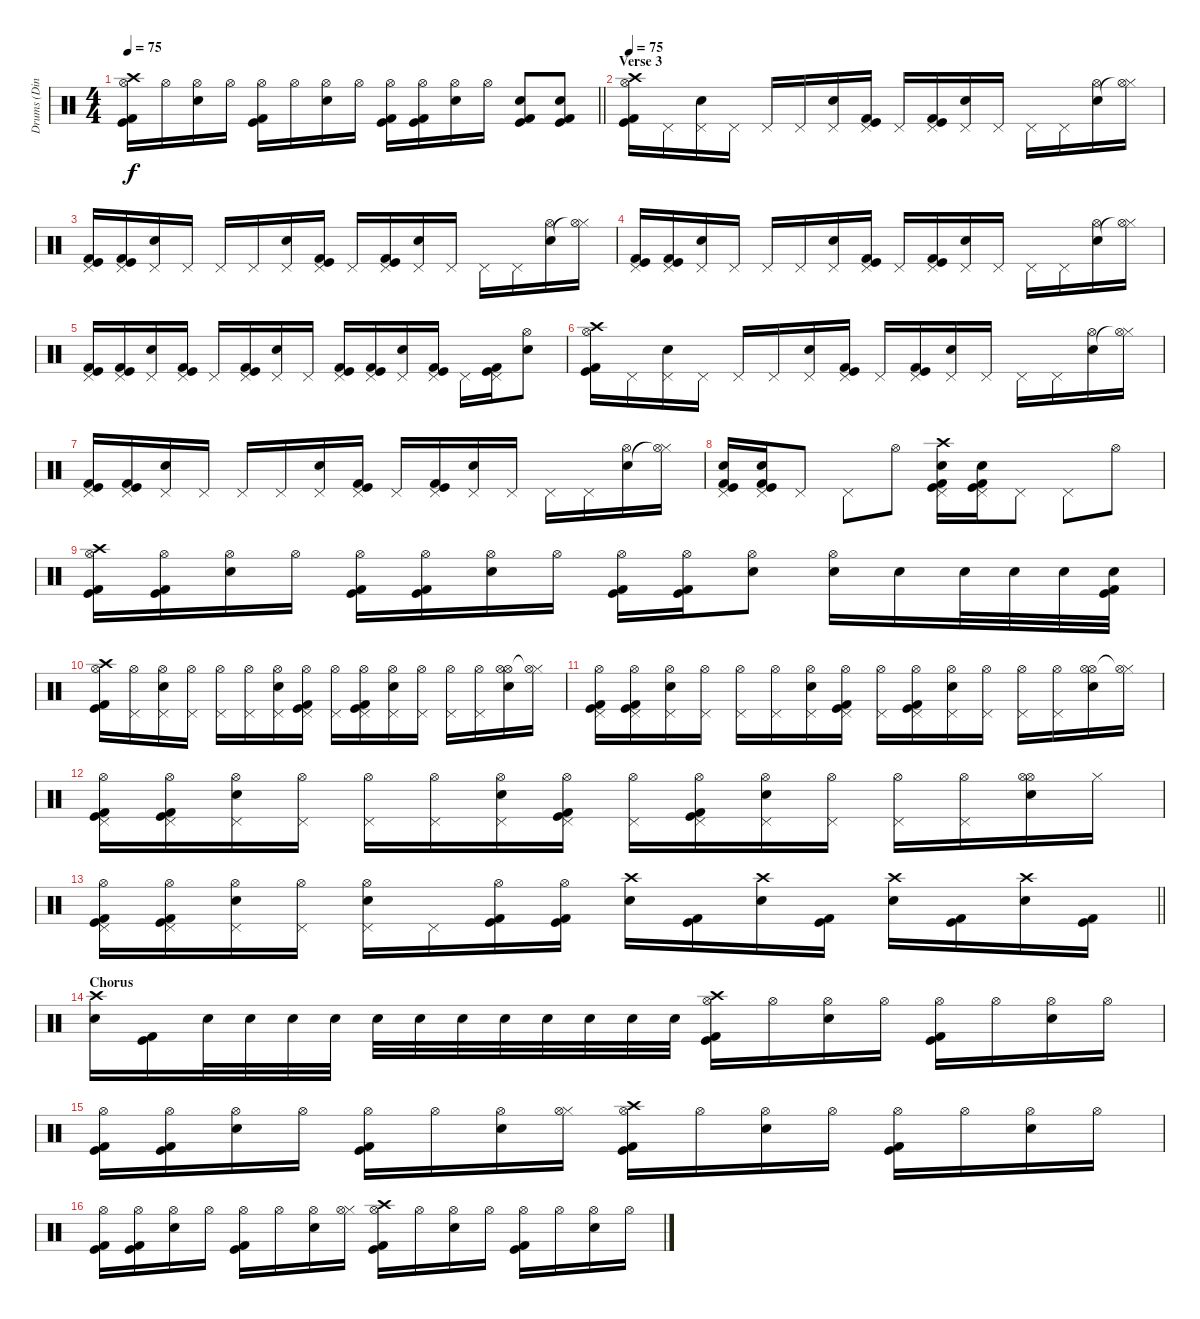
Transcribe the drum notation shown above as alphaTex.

\track ("Drums (Din-din)" "Drums (Din") {instrument percussion}
\staff {score}
\articulation defaults
\ts (4 4)
\tempo 75
\clef neutral
\barLineRight lightlight
\ks c
("Crash high (hit)" "Hi-Hat (open)" "Kick (hit)" "Kick (hit) 2").16{dy f} "Hi-Hat (open)".16 ("Hi-Hat (open)" "Snare (hit) 2").16 "Hi-Hat (open)".16 ("Hi-Hat (open)" "Kick (hit)" "Kick (hit) 2").16 "Hi-Hat (open)".16 ("Hi-Hat (open)" "Snare (hit) 2").16 "Hi-Hat (open)".16 ("Hi-Hat (open)" "Kick (hit)" "Kick (hit) 2").16 ("Hi-Hat (open)" "Kick (hit)" "Kick (hit) 2").16 ("Hi-Hat (open)" "Snare (hit) 2").16 "Hi-Hat (open)".16 ("Snare (hit) 2" "Kick (hit)" "Kick (hit) 2").8 ("Snare (hit) 2" "Kick (hit)" "Kick (hit) 2").8 |
\section ("" "Verse 3")
\tempo 75
("Crash high (hit)" "Hi-Hat (open)" "Kick (hit)" "Kick (hit) 2").16 "Pedal Hi-Hat (hit)".16 ("Pedal Hi-Hat (hit)" "Snare (hit) 2").16 "Pedal Hi-Hat (hit)".16 "Pedal Hi-Hat (hit)".16 "Pedal Hi-Hat (hit)".16 ("Pedal Hi-Hat (hit)" "Snare (hit) 2").16 ("Pedal Hi-Hat (hit)" "Kick (hit)" "Kick (hit) 2").16 "Pedal Hi-Hat (hit)".16 ("Pedal Hi-Hat (hit)" "Kick (hit)" "Kick (hit) 2").16 ("Pedal Hi-Hat (hit)" "Snare (hit) 2").16 "Pedal Hi-Hat (hit)".16 "Pedal Hi-Hat (hit)".16 "Pedal Hi-Hat (hit)".16 ("Hi-Hat (open)" "Snare (hit) 2").16 ("Hi-Hat (closed)" "Hi-Hat (open)"{t}).16 |
("Pedal Hi-Hat (hit)" "Kick (hit)" "Kick (hit) 2").16 ("Pedal Hi-Hat (hit)" "Kick (hit)" "Kick (hit) 2").16 ("Pedal Hi-Hat (hit)" "Snare (hit) 2").16 "Pedal Hi-Hat (hit)".16 "Pedal Hi-Hat (hit)".16 "Pedal Hi-Hat (hit)".16 ("Pedal Hi-Hat (hit)" "Snare (hit) 2").16 ("Pedal Hi-Hat (hit)" "Kick (hit)" "Kick (hit) 2").16 "Pedal Hi-Hat (hit)".16 ("Pedal Hi-Hat (hit)" "Kick (hit)" "Kick (hit) 2").16 ("Pedal Hi-Hat (hit)" "Snare (hit) 2").16 "Pedal Hi-Hat (hit)".16 "Pedal Hi-Hat (hit)".16 "Pedal Hi-Hat (hit)".16 ("Hi-Hat (open)" "Snare (hit) 2").16 ("Hi-Hat (closed)" "Hi-Hat (open)"{t}).16 |
("Pedal Hi-Hat (hit)" "Kick (hit)" "Kick (hit) 2").16 ("Pedal Hi-Hat (hit)" "Kick (hit)" "Kick (hit) 2").16 ("Pedal Hi-Hat (hit)" "Snare (hit) 2").16 "Pedal Hi-Hat (hit)".16 "Pedal Hi-Hat (hit)".16 "Pedal Hi-Hat (hit)".16 ("Pedal Hi-Hat (hit)" "Snare (hit) 2").16 ("Pedal Hi-Hat (hit)" "Kick (hit)" "Kick (hit) 2").16 "Pedal Hi-Hat (hit)".16 ("Pedal Hi-Hat (hit)" "Kick (hit)" "Kick (hit) 2").16 ("Pedal Hi-Hat (hit)" "Snare (hit) 2").16 "Pedal Hi-Hat (hit)".16 "Pedal Hi-Hat (hit)".16 "Pedal Hi-Hat (hit)".16 ("Hi-Hat (open)" "Snare (hit) 2").16 ("Hi-Hat (closed)" "Hi-Hat (open)"{t}).16 |
("Pedal Hi-Hat (hit)" "Kick (hit)" "Kick (hit) 2").16 ("Pedal Hi-Hat (hit)" "Kick (hit)" "Kick (hit) 2").16 ("Pedal Hi-Hat (hit)" "Snare (hit) 2").16 ("Pedal Hi-Hat (hit)" "Kick (hit)" "Kick (hit) 2").16 "Pedal Hi-Hat (hit)".16 ("Pedal Hi-Hat (hit)" "Kick (hit)" "Kick (hit) 2").16 ("Pedal Hi-Hat (hit)" "Snare (hit) 2").16 "Pedal Hi-Hat (hit)".16 ("Pedal Hi-Hat (hit)" "Kick (hit)" "Kick (hit) 2").16 ("Pedal Hi-Hat (hit)" "Kick (hit)" "Kick (hit) 2").16 ("Pedal Hi-Hat (hit)" "Snare (hit) 2").16 ("Pedal Hi-Hat (hit)" "Kick (hit)" "Kick (hit) 2").16 "Pedal Hi-Hat (hit)".16 ("Pedal Hi-Hat (hit)" "Kick (hit)" "Kick (hit) 2").16 ("Hi-Hat (open)" "Snare (hit) 2").8 |
("Crash high (hit)" "Hi-Hat (open)" "Kick (hit)" "Kick (hit) 2").16 "Pedal Hi-Hat (hit)".16 ("Pedal Hi-Hat (hit)" "Snare (hit) 2").16 "Pedal Hi-Hat (hit)".16 "Pedal Hi-Hat (hit)".16 "Pedal Hi-Hat (hit)".16 ("Pedal Hi-Hat (hit)" "Snare (hit) 2").16 ("Pedal Hi-Hat (hit)" "Kick (hit)" "Kick (hit) 2").16 "Pedal Hi-Hat (hit)".16 ("Pedal Hi-Hat (hit)" "Kick (hit)" "Kick (hit) 2").16 ("Pedal Hi-Hat (hit)" "Snare (hit) 2").16 "Pedal Hi-Hat (hit)".16 "Pedal Hi-Hat (hit)".16 "Pedal Hi-Hat (hit)".16 ("Hi-Hat (open)" "Snare (hit) 2").16 ("Hi-Hat (closed)" "Hi-Hat (open)"{t}).16 |
("Pedal Hi-Hat (hit)" "Kick (hit)" "Kick (hit) 2").16 ("Pedal Hi-Hat (hit)" "Kick (hit)" "Kick (hit) 2").16 ("Pedal Hi-Hat (hit)" "Snare (hit) 2").16 "Pedal Hi-Hat (hit)".16 "Pedal Hi-Hat (hit)".16 "Pedal Hi-Hat (hit)".16 ("Pedal Hi-Hat (hit)" "Snare (hit) 2").16 ("Pedal Hi-Hat (hit)" "Kick (hit)" "Kick (hit) 2").16 "Pedal Hi-Hat (hit)".16 ("Pedal Hi-Hat (hit)" "Kick (hit)" "Kick (hit) 2").16 ("Pedal Hi-Hat (hit)" "Snare (hit) 2").16 "Pedal Hi-Hat (hit)".16 "Pedal Hi-Hat (hit)".16 "Pedal Hi-Hat (hit)".16 ("Hi-Hat (open)" "Snare (hit) 2").16 ("Hi-Hat (closed)" "Hi-Hat (open)"{t}).16 |
("Pedal Hi-Hat (hit)" "Snare (hit) 2" "Kick (hit)" "Kick (hit) 2").16 ("Pedal Hi-Hat (hit)" "Snare (hit) 2" "Kick (hit)" "Kick (hit) 2").16 "Pedal Hi-Hat (hit)".8 "Pedal Hi-Hat (hit)".8 "Hi-Hat (open)".8 ("Crash high (hit)" "Pedal Hi-Hat (hit)" "Snare (hit) 2" "Kick (hit)" "Kick (hit) 2").16 ("Pedal Hi-Hat (hit)" "Snare (hit) 2" "Kick (hit)" "Kick (hit) 2").16 "Pedal Hi-Hat (hit)".8 "Pedal Hi-Hat (hit)".8 "Hi-Hat (open)".8 |
("Crash high (hit)" "Hi-Hat (open)" "Kick (hit)" "Kick (hit) 2").16 ("Hi-Hat (open)" "Kick (hit)" "Kick (hit) 2").16 ("Hi-Hat (open)" "Snare (hit) 2").16 "Hi-Hat (open)".16 ("Hi-Hat (open)" "Kick (hit)" "Kick (hit) 2").16 ("Hi-Hat (open)" "Kick (hit)" "Kick (hit) 2").16 ("Hi-Hat (open)" "Snare (hit) 2").16 "Hi-Hat (open)".16 ("Hi-Hat (open)" "Kick (hit)" "Kick (hit) 2").16 ("Hi-Hat (open)" "Kick (hit)" "Kick (hit) 2").16 ("Hi-Hat (open)" "Snare (hit) 2").8 ("Hi-Hat (open)" "Snare (hit) 2").16 "Snare (hit) 2".16 "Snare (hit) 2".32 "Snare (hit) 2".32 "Snare (hit) 2".32 ("Snare (hit) 2" "Kick (hit)" "Kick (hit) 2").32 |
("Crash high (hit)" "Hi-Hat (open)" "Kick (hit)" "Kick (hit) 2").16 ("Hi-Hat (open)" "Pedal Hi-Hat (hit)").16 ("Hi-Hat (open)" "Pedal Hi-Hat (hit)" "Snare (hit) 2").16 ("Hi-Hat (open)" "Pedal Hi-Hat (hit)").16 ("Hi-Hat (open)" "Pedal Hi-Hat (hit)").16 ("Hi-Hat (open)" "Pedal Hi-Hat (hit)").16 ("Hi-Hat (open)" "Pedal Hi-Hat (hit)" "Snare (hit) 2").16 ("Hi-Hat (open)" "Pedal Hi-Hat (hit)" "Kick (hit)" "Kick (hit) 2").16 ("Hi-Hat (open)" "Pedal Hi-Hat (hit)").16 ("Hi-Hat (open)" "Pedal Hi-Hat (hit)" "Kick (hit)" "Kick (hit) 2").16 ("Hi-Hat (open)" "Pedal Hi-Hat (hit)" "Snare (hit) 2").16 ("Hi-Hat (open)" "Pedal Hi-Hat (hit)").16 ("Hi-Hat (open)" "Pedal Hi-Hat (hit)").16 ("Hi-Hat (open)" "Pedal Hi-Hat (hit)").16 ("Hi-Hat (open)" "Hi-Hat (open)" "Snare (hit) 2").16 ("Hi-Hat (closed)" "Hi-Hat (open)"{t}).16 |
("Hi-Hat (open)" "Pedal Hi-Hat (hit)" "Kick (hit)" "Kick (hit) 2").16 ("Hi-Hat (open)" "Pedal Hi-Hat (hit)" "Kick (hit)" "Kick (hit) 2").16 ("Hi-Hat (open)" "Pedal Hi-Hat (hit)" "Snare (hit) 2").16 ("Hi-Hat (open)" "Pedal Hi-Hat (hit)").16 ("Hi-Hat (open)" "Pedal Hi-Hat (hit)").16 ("Hi-Hat (open)" "Pedal Hi-Hat (hit)").16 ("Hi-Hat (open)" "Pedal Hi-Hat (hit)" "Snare (hit) 2").16 ("Hi-Hat (open)" "Pedal Hi-Hat (hit)" "Kick (hit)" "Kick (hit) 2").16 ("Hi-Hat (open)" "Pedal Hi-Hat (hit)").16 ("Hi-Hat (open)" "Pedal Hi-Hat (hit)" "Kick (hit)" "Kick (hit) 2").16 ("Hi-Hat (open)" "Pedal Hi-Hat (hit)" "Snare (hit) 2").16 ("Hi-Hat (open)" "Pedal Hi-Hat (hit)").16 ("Hi-Hat (open)" "Pedal Hi-Hat (hit)").16 ("Hi-Hat (open)" "Pedal Hi-Hat (hit)").16 ("Hi-Hat (open)" "Hi-Hat (open)" "Snare (hit) 2").16 ("Hi-Hat (closed)" "Hi-Hat (open)"{t}).16 |
("Hi-Hat (open)" "Pedal Hi-Hat (hit)" "Kick (hit)" "Kick (hit) 2").16 ("Hi-Hat (open)" "Pedal Hi-Hat (hit)" "Kick (hit)" "Kick (hit) 2").16 ("Hi-Hat (open)" "Pedal Hi-Hat (hit)" "Snare (hit) 2").16 ("Hi-Hat (open)" "Pedal Hi-Hat (hit)").16 ("Hi-Hat (open)" "Pedal Hi-Hat (hit)").16 ("Hi-Hat (open)" "Pedal Hi-Hat (hit)").16 ("Hi-Hat (open)" "Pedal Hi-Hat (hit)" "Snare (hit) 2").16 ("Hi-Hat (open)" "Pedal Hi-Hat (hit)" "Kick (hit)" "Kick (hit) 2").16 ("Hi-Hat (open)" "Pedal Hi-Hat (hit)").16 ("Hi-Hat (open)" "Pedal Hi-Hat (hit)" "Kick (hit)" "Kick (hit) 2").16 ("Hi-Hat (open)" "Pedal Hi-Hat (hit)" "Snare (hit) 2").16 ("Hi-Hat (open)" "Pedal Hi-Hat (hit)").16 ("Hi-Hat (open)" "Pedal Hi-Hat (hit)").16 ("Hi-Hat (open)" "Pedal Hi-Hat (hit)").16 ("Hi-Hat (open)" "Hi-Hat (open)" "Snare (hit) 2").16 "Hi-Hat (closed)".16 |
\barLineRight lightlight
("Hi-Hat (open)" "Pedal Hi-Hat (hit)" "Kick (hit)" "Kick (hit) 2").16 ("Hi-Hat (open)" "Pedal Hi-Hat (hit)" "Kick (hit)" "Kick (hit) 2").16 ("Hi-Hat (open)" "Pedal Hi-Hat (hit)" "Snare (hit) 2").16 ("Hi-Hat (open)" "Pedal Hi-Hat (hit)").16 ("Hi-Hat (open)" "Pedal Hi-Hat (hit)" "Snare (hit) 2").16 "Pedal Hi-Hat (hit)".16 ("Hi-Hat (open)" "Kick (hit)" "Kick (hit) 2").16 ("Hi-Hat (open)" "Kick (hit)" "Kick (hit) 2").16 ("Crash high (hit)" "Snare (hit) 2").16 ("Kick (hit)" "Kick (hit) 2").16 ("Crash high (hit)" "Snare (hit) 2").16 ("Kick (hit)" "Kick (hit) 2").16 ("Crash high (hit)" "Snare (hit) 2").16 ("Kick (hit)" "Kick (hit) 2").16 ("Crash high (hit)" "Snare (hit) 2").16 ("Kick (hit)" "Kick (hit) 2").16 |
\section ("" "Chorus")
("Crash high (hit)" "Snare (hit) 2").16 ("Kick (hit)" "Kick (hit) 2").16 "Snare (hit) 2".32 "Snare (hit) 2".32 "Snare (hit) 2".32 "Snare (hit) 2".32 "Snare (hit) 2".32 "Snare (hit) 2".32 "Snare (hit) 2".32 "Snare (hit) 2".32 "Snare (hit) 2".32 "Snare (hit) 2".32 "Snare (hit) 2".32 "Snare (hit) 2".32 ("Crash high (hit)" "Hi-Hat (open)" "Kick (hit)" "Kick (hit) 2").16 "Hi-Hat (open)".16 ("Hi-Hat (open)" "Snare (hit) 2").16 "Hi-Hat (open)".16 ("Hi-Hat (open)" "Kick (hit)" "Kick (hit) 2").16 "Hi-Hat (open)".16 ("Hi-Hat (open)" "Snare (hit) 2").16 "Hi-Hat (open)".16 |
("Hi-Hat (open)" "Kick (hit)" "Kick (hit) 2").16 ("Hi-Hat (open)" "Kick (hit)" "Kick (hit) 2").16 ("Hi-Hat (open)" "Snare (hit) 2").16 "Hi-Hat (open)".16 ("Hi-Hat (open)" "Kick (hit)" "Kick (hit) 2").16 "Hi-Hat (open)".16 ("Hi-Hat (open)" "Snare (hit) 2").16 ("Hi-Hat (closed)" "Hi-Hat (open)").16 ("Crash high (hit)" "Hi-Hat (open)" "Kick (hit)" "Kick (hit) 2").16 "Hi-Hat (open)".16 ("Hi-Hat (open)" "Snare (hit) 2").16 "Hi-Hat (open)".16 ("Hi-Hat (open)" "Kick (hit)" "Kick (hit) 2").16 "Hi-Hat (open)".16 ("Hi-Hat (open)" "Snare (hit) 2").16 "Hi-Hat (open)".16 |
("Hi-Hat (open)" "Kick (hit)" "Kick (hit) 2").16 ("Hi-Hat (open)" "Kick (hit)" "Kick (hit) 2").16 ("Hi-Hat (open)" "Snare (hit) 2").16 "Hi-Hat (open)".16 ("Hi-Hat (open)" "Kick (hit)" "Kick (hit) 2").16 "Hi-Hat (open)".16 ("Hi-Hat (open)" "Snare (hit) 2").16 ("Hi-Hat (closed)" "Hi-Hat (open)").16 ("Crash high (hit)" "Hi-Hat (open)" "Kick (hit)" "Kick (hit) 2").16 "Hi-Hat (open)".16 ("Hi-Hat (open)" "Snare (hit) 2").16 "Hi-Hat (open)".16 ("Hi-Hat (open)" "Kick (hit)" "Kick (hit) 2").16 "Hi-Hat (open)".16 ("Hi-Hat (open)" "Snare (hit) 2").16 "Hi-Hat (open)".16
